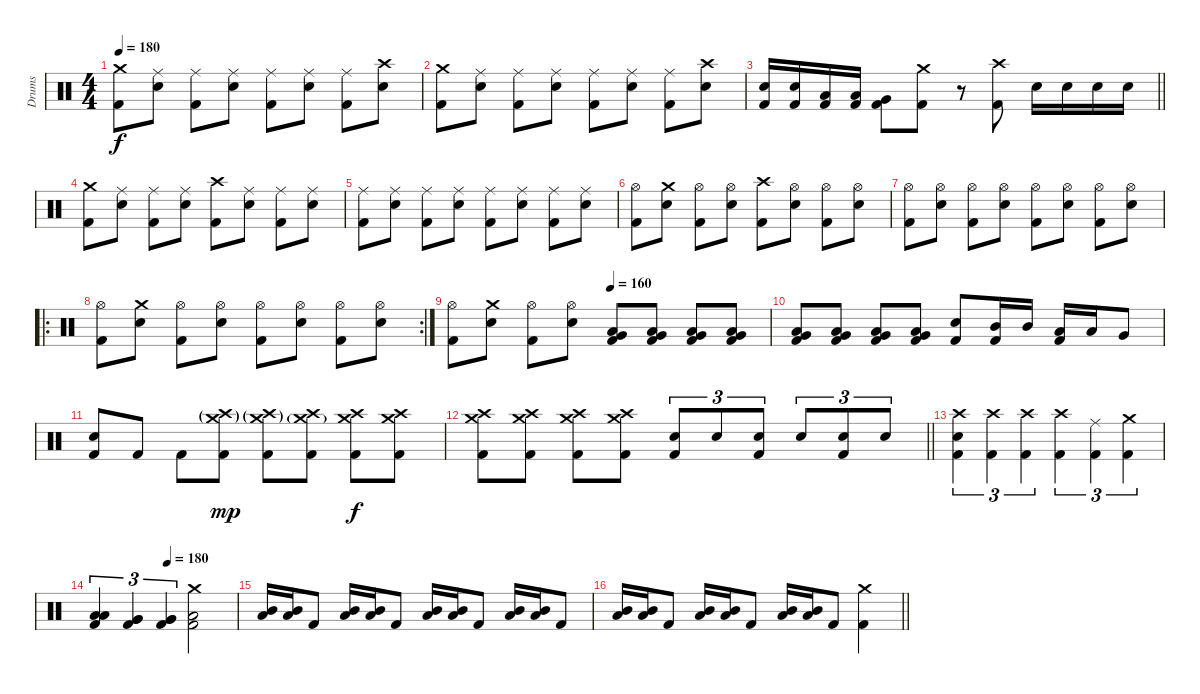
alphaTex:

\track ("Drums" "Drums") {instrument percussion}
\staff {score}
\articulation defaults
\ts (4 4)
\tempo 180
\clef neutral
\ks c
("Crash medium (hit)" "Kick (hit) 2").8{dy f} ("Ride (middle)" "Snare (hit) 2").8 ("Ride (middle)" "Kick (hit) 2").8 ("Ride (middle)" "Snare (hit) 2").8 ("Ride (middle)" "Kick (hit) 2").8 ("Ride (middle)" "Snare (hit) 2").8 ("Ride (middle)" "Kick (hit) 2").8 ("Crash high (hit)" "Snare (hit) 2").8 |
("Crash medium (hit)" "Kick (hit) 2").8 ("Ride (middle)" "Snare (hit) 2").8 ("Ride (middle)" "Kick (hit) 2").8 ("Ride (middle)" "Snare (hit) 2").8 ("Ride (middle)" "Kick (hit) 2").8 ("Ride (middle)" "Snare (hit) 2").8 ("Ride (middle)" "Kick (hit) 2").8 ("Crash high (hit)" "Snare (hit) 2").8 |
\barLineRight lightlight
("Snare (hit) 2" "Kick (hit) 2").16 ("Snare (hit) 2" "Kick (hit) 2").16 ("Low Tom (hit)" "Kick (hit) 2").16 ("Low Tom (hit)" "Kick (hit) 2").16 ("Very Low Tom (hit)" "Kick (hit) 2").8 ("Crash medium (hit)" "Kick (hit) 2").8 r.8 ("Crash high (hit)" "Kick (hit) 2").8 "Snare (hit) 2".16 "Snare (hit) 2".16 "Snare (hit) 2".16 "Snare (hit) 2".16 |
("Crash medium (hit)" "Kick (hit) 2").8 ("Ride (middle)" "Snare (hit) 2").8 ("Ride (middle)" "Kick (hit) 2").8 ("Ride (middle)" "Snare (hit) 2").8 ("Crash high (hit)" "Kick (hit) 2").8 ("Ride (middle)" "Snare (hit) 2").8 ("Ride (middle)" "Kick (hit) 2").8 ("Ride (middle)" "Snare (hit) 2").8 |
("Ride (middle)" "Kick (hit) 2").8 ("Ride (middle)" "Snare (hit) 2").8 ("Ride (middle)" "Kick (hit) 2").8 ("Ride (middle)" "Snare (hit) 2").8 ("Ride (middle)" "Kick (hit) 2").8 ("Ride (middle)" "Snare (hit) 2").8 ("Ride (middle)" "Kick (hit) 2").8 ("Ride (middle)" "Snare (hit) 2").8 |
("Hi-Hat (open)" "Kick (hit) 2").8 ("Crash medium (hit)" "Snare (hit) 2").8 ("Hi-Hat (open)" "Kick (hit) 2").8 ("Hi-Hat (open)" "Snare (hit) 2").8 ("Crash high (hit)" "Kick (hit) 2").8 ("Hi-Hat (open)" "Snare (hit) 2").8 ("Hi-Hat (open)" "Kick (hit) 2").8 ("Hi-Hat (open)" "Snare (hit) 2").8 |
("Hi-Hat (open)" "Kick (hit) 2").8 ("Hi-Hat (open)" "Snare (hit) 2").8 ("Hi-Hat (open)" "Kick (hit) 2").8 ("Hi-Hat (open)" "Snare (hit) 2").8 ("Hi-Hat (open)" "Kick (hit) 2").8 ("Hi-Hat (open)" "Snare (hit) 2").8 ("Hi-Hat (open)" "Kick (hit) 2").8 ("Hi-Hat (open)" "Snare (hit) 2").8 |
\ro
\rc 2
("Hi-Hat (open)" "Kick (hit) 2").8 ("Crash medium (hit)" "Snare (hit) 2").8 ("Hi-Hat (open)" "Kick (hit) 2").8 ("Hi-Hat (open)" "Snare (hit) 2").8 ("Hi-Hat (open)" "Kick (hit) 2").8 ("Hi-Hat (open)" "Snare (hit) 2").8 ("Hi-Hat (open)" "Kick (hit) 2").8 ("Hi-Hat (open)" "Snare (hit) 2").8 |
\tempo (160 0.5)
("Hi-Hat (open)" "Kick (hit) 2").8 ("Crash medium (hit)" "Snare (hit) 2").8 ("Hi-Hat (open)" "Kick (hit) 2").8 ("Hi-Hat (open)" "Snare (hit) 2").8 ("Low Tom (hit)" "Very Low Tom (hit)" "Kick (hit) 2").8 ("Low Tom (hit)" "Very Low Tom (hit)" "Kick (hit) 2").8 ("Low Tom (hit)" "Very Low Tom (hit)" "Kick (hit) 2").8 ("Low Tom (hit)" "Very Low Tom (hit)" "Kick (hit) 2").8 |
("Low Tom (hit)" "Very Low Tom (hit)" "Kick (hit) 2").8 ("Low Tom (hit)" "Very Low Tom (hit)" "Kick (hit) 2").8 ("Low Tom (hit)" "Very Low Tom (hit)" "Kick (hit) 2").8 ("Low Tom (hit)" "Very Low Tom (hit)" "Kick (hit) 2").8 ("Snare (hit) 2" "Kick (hit) 2").8 ("Mid Tom (hit)" "Kick (hit) 2").16 "Mid Tom (hit)".16 ("Low Tom (hit)" "Kick (hit) 2").16 "Low Tom (hit)".16 "Very Low Tom (hit)".8 |
("Snare (hit) 2" "Kick (hit) 2").8 "Kick (hit) 2".8 "Kick (hit) 2".8 ("Crash medium (hit)"{g} "Crash high (hit)"{g} "Kick (hit) 2").8{dy mp} ("Crash medium (hit)"{g} "Crash high (hit)"{g} "Kick (hit) 2").8 ("Crash medium (hit)"{g} "Crash high (hit)" "Kick (hit) 2").8 ("Crash medium (hit)" "Crash high (hit)" "Kick (hit) 2").8{dy f} ("Crash medium (hit)" "Crash high (hit)" "Kick (hit) 2").8 |
\barLineRight lightlight
("Crash medium (hit)" "Crash high (hit)" "Kick (hit) 2").8 ("Crash medium (hit)" "Crash high (hit)" "Kick (hit) 2").8 ("Crash medium (hit)" "Crash high (hit)" "Kick (hit) 2").8 ("Crash medium (hit)" "Crash high (hit)" "Kick (hit) 2").8 ("Snare (hit) 2" "Kick (hit) 2").8{tu (3 2)} "Snare (hit) 2".8{tu (3 2)} ("Snare (hit) 2" "Kick (hit) 2").8{tu (3 2)} "Snare (hit) 2".8{tu (3 2)} ("Snare (hit) 2" "Kick (hit) 2").8{tu (3 2)} "Snare (hit) 2".8{tu (3 2)} |
("Crash high (hit)" "Snare (hit) 2" "Kick (hit) 2").4{tu (3 2)} ("Crash high (hit)" "Kick (hit) 2").4{tu (3 2)} ("Crash high (hit)" "Kick (hit) 2").4{tu (3 2)} ("Crash high (hit)" "Kick (hit) 2").4{tu (3 2)} ("Ride (middle)" "Kick (hit) 2").4{tu (3 2)} ("Crash medium (hit)" "Kick (hit) 2").4{tu (3 2)} |
\tempo (190 0.5)
\tempo (180 0.5)
("Low Tom (hit)" "Low Tom (hit)" "Kick (hit) 2").4{tu (3 2)} ("Very Low Tom (hit)" "Very Low Tom (hit)" "Kick (hit) 2").4{tu (3 2)} ("Very Low Tom (hit)" "Very Low Tom (hit)" "Kick (hit) 2").4{tu (3 2)} ("Crash medium (hit)" "Low Floor Tom (hit)" "Kick (hit) 2").2 |
("Low Tom (hit)" "Mid Tom (hit)").16 ("Low Tom (hit)" "Mid Tom (hit)").16 "Kick (hit) 2".8 ("Low Tom (hit)" "Mid Tom (hit)").16 ("Low Tom (hit)" "Mid Tom (hit)").16 "Kick (hit) 2".8 ("Low Tom (hit)" "Mid Tom (hit)").16 ("Low Tom (hit)" "Mid Tom (hit)").16 "Kick (hit) 2".8 ("Low Tom (hit)" "Mid Tom (hit)").16 ("Low Tom (hit)" "Mid Tom (hit)").16 "Kick (hit) 2".8 |
\barLineRight lightlight
("Low Tom (hit)" "Mid Tom (hit)").16 ("Low Tom (hit)" "Mid Tom (hit)").16 "Kick (hit) 2".8 ("Low Tom (hit)" "Mid Tom (hit)").16 ("Low Tom (hit)" "Mid Tom (hit)").16 "Kick (hit) 2".8 ("Low Tom (hit)" "Mid Tom (hit)").16 ("Low Tom (hit)" "Mid Tom (hit)").16 "Kick (hit) 2".8 ("Crash medium (hit)" "Kick (hit) 2").4
